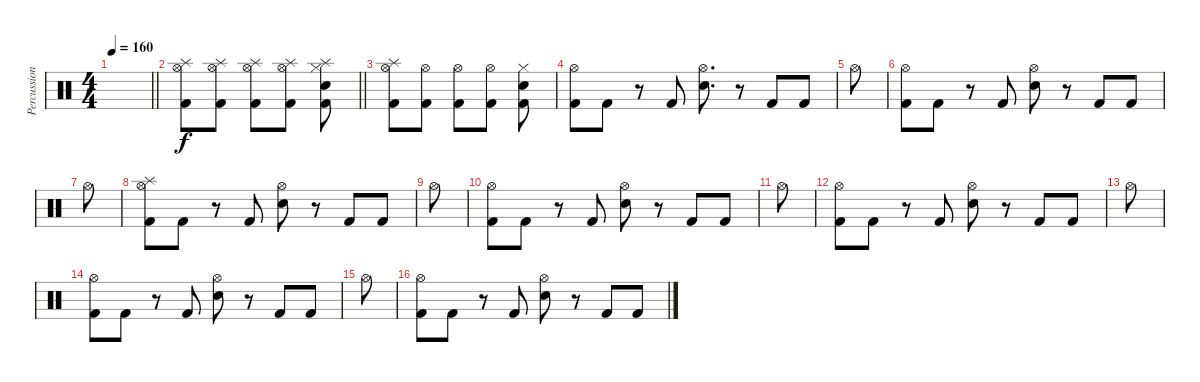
\track ("Percussion" "Percussion") {instrument percussion}
\staff {score}
\articulation defaults
\ts (4 4)
\tempo 160
\clef neutral
\barLineRight lightlight
\ks c
|
\barLineRight lightlight
("Splash (hit)" "Kick (hit) 2" "Hi-Hat (open)").8 ("Splash (hit)" "Kick (hit) 2" "Hi-Hat (open)").8 ("Splash (hit)" "Kick (hit) 2" "Hi-Hat (open)").8 ("Splash (hit)" "Kick (hit) 2" "Hi-Hat (open)").8 ("Splash (hit)" "Kick (hit) 2" "Electric Snare (hit)" "Hi-Hat (closed)").8 |
("Splash (hit)" "Kick (hit) 2" "Hi-Hat (open)").8 ("Kick (hit) 2" "Hi-Hat (open)").8 ("Kick (hit) 2" "Hi-Hat (open)").8 ("Kick (hit) 2" "Hi-Hat (open)").8 ("Kick (hit) 2" "Electric Snare (hit)" "Hi-Hat (closed)").8 |
("Kick (hit) 2" "Hi-Hat (open)").8 "Kick (hit) 2".8 r.8 "Kick (hit) 2".8 ("Snare (hit) 2" "Hi-Hat (open)").8{d} r.8 "Kick (hit) 2".8 "Kick (hit) 2".8 |
"Hi-Hat (open)".8 |
("Kick (hit) 2" "Hi-Hat (open)").8 "Kick (hit) 2".8 r.8 "Kick (hit) 2".8 ("Snare (hit) 2" "Hi-Hat (open)").8 r.8 "Kick (hit) 2".8 "Kick (hit) 2".8 |
"Hi-Hat (open)".8 |
("Splash (hit)" "Kick (hit) 2" "Hi-Hat (open)").8 "Kick (hit) 2".8 r.8 "Kick (hit) 2".8 ("Snare (hit) 2" "Hi-Hat (open)").8 r.8 "Kick (hit) 2".8 "Kick (hit) 2".8 |
"Hi-Hat (open)".8 |
("Kick (hit) 2" "Hi-Hat (open)").8 "Kick (hit) 2".8 r.8 "Kick (hit) 2".8 ("Snare (hit) 2" "Hi-Hat (open)").8 r.8 "Kick (hit) 2".8 "Kick (hit) 2".8 |
"Hi-Hat (open)".8 |
("Kick (hit) 2" "Hi-Hat (open)").8 "Kick (hit) 2".8 r.8 "Kick (hit) 2".8 ("Snare (hit) 2" "Hi-Hat (open)").8 r.8 "Kick (hit) 2".8 "Kick (hit) 2".8 |
"Hi-Hat (open)".8 |
("Kick (hit) 2" "Hi-Hat (open)").8 "Kick (hit) 2".8 r.8 "Kick (hit) 2".8 ("Snare (hit) 2" "Hi-Hat (open)").8 r.8 "Kick (hit) 2".8 "Kick (hit) 2".8 |
"Hi-Hat (open)".8 |
("Kick (hit) 2" "Hi-Hat (open)").8 "Kick (hit) 2".8 r.8 "Kick (hit) 2".8 ("Snare (hit) 2" "Hi-Hat (open)").8 r.8 "Kick (hit) 2".8 "Kick (hit) 2".8
